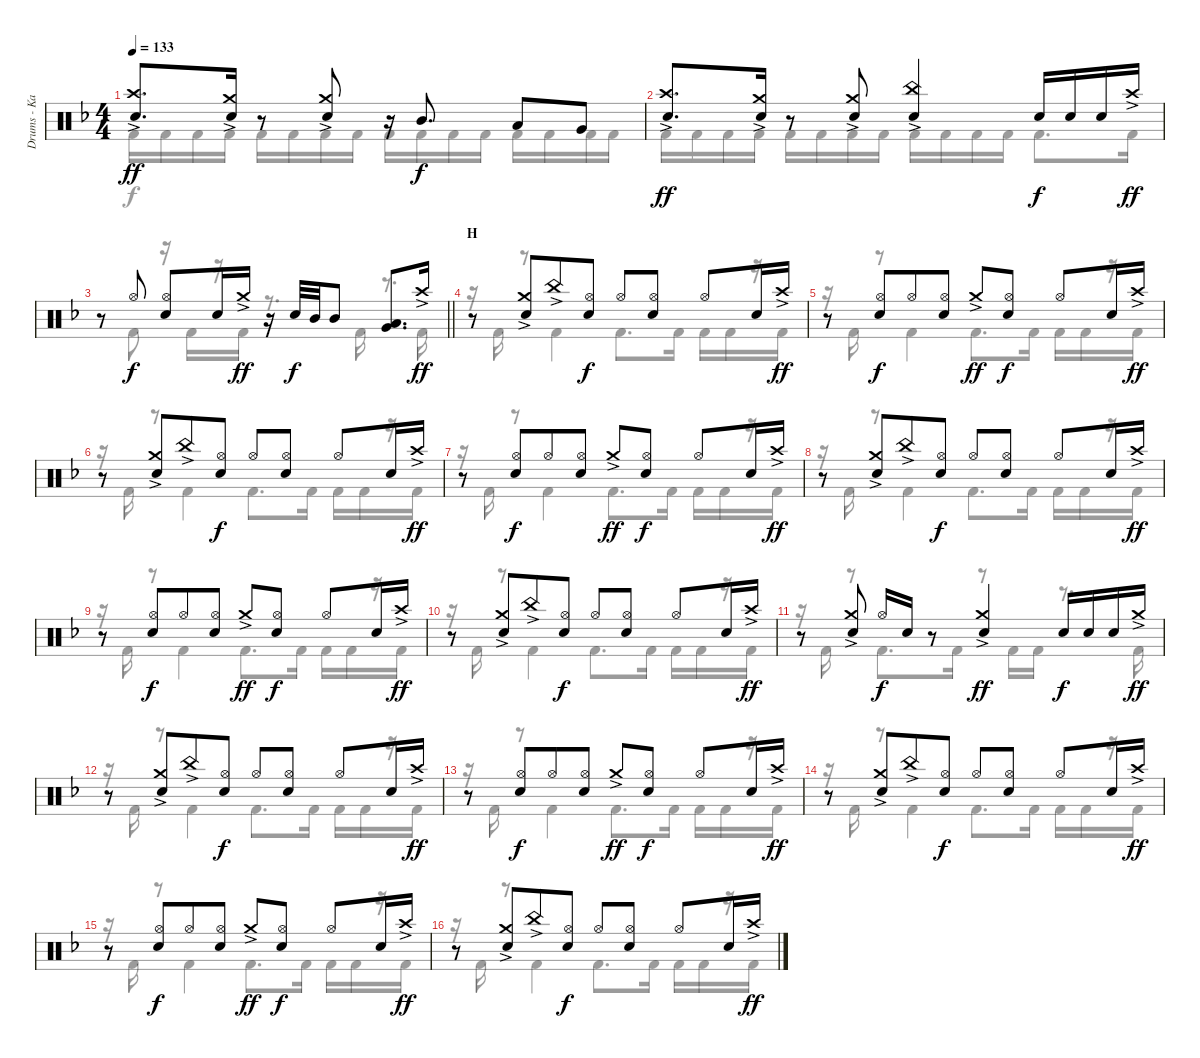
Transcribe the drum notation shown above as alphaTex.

\track ("Drums - Kai" "Drums - Ka") {instrument percussion}
\staff {score}
\articulation defaults
\voice
\ts (4 4)
\tempo 133
\clef neutral
\ks f
("Crash high (hit)"{ac} "Snare (hit) 2").8{d dy ff} ("Crash medium (hit)"{ac} "Snare (hit) 2").16 r.8 ("Crash medium (hit)"{ac} "Snare (hit) 2").8 r.16 "Mid Tom (hit)".8{d dy f} "Low Tom (hit)".8 "Very Low Tom (hit)".8 |
("Crash high (hit)"{ac} "Snare (hit) 2").8{d dy ff} ("Crash medium (hit)"{ac} "Snare (hit) 2").16 r.8 ("Crash medium (hit)"{ac} "Snare (hit) 2").8 ("China (hit)"{ac} "Snare (hit) 2").4 "Snare (hit) 2".16{dy f} "Snare (hit) 2".16 "Snare (hit) 2".16 "Crash high (hit)"{ac}.16{dy ff} |
\barLineRight lightlight
r.8 "Hi-Hat (open)".8{dy f} ("Hi-Hat (open)" "Snare (hit) 2").8 "Snare (hit) 2".16 "Crash medium (hit)"{ac}.16{dy ff} r.16 "Snare (hit) 2".32{dy f} "Mid Tom (hit)".32 "Mid Tom (hit)".8 ("Low Tom (hit)" "Very Low Tom (hit)").8{d} "Crash high (hit)"{ac}.16{dy ff} |
\section ("" "H")
r.8 ("Crash medium (hit)"{ac} "Snare (hit) 2").8{beam merge} "China (hit)"{ac}.8 ("Hi-Hat (open)" "Snare (hit) 2").8{dy f} "Hi-Hat (open)".8 ("Hi-Hat (open)" "Snare (hit) 2").8 "Hi-Hat (open)".8 "Snare (hit) 2".16 "Crash high (hit)"{ac}.16{dy ff} |
r.8 ("Hi-Hat (open)" "Snare (hit) 2").8{dy f beam merge} "Hi-Hat (open)".8 ("Hi-Hat (open)" "Snare (hit) 2").8 "Crash medium (hit)"{ac}.8{dy ff} ("Hi-Hat (open)" "Snare (hit) 2").8{dy f beam split} "Hi-Hat (open)".8 "Snare (hit) 2".16 "Crash high (hit)"{ac}.16{dy ff} |
r.8 ("Crash medium (hit)"{ac} "Snare (hit) 2").8{beam merge} "China (hit)"{ac}.8 ("Hi-Hat (open)" "Snare (hit) 2").8{dy f} "Hi-Hat (open)".8 ("Hi-Hat (open)" "Snare (hit) 2").8 "Hi-Hat (open)".8 "Snare (hit) 2".16 "Crash high (hit)"{ac}.16{dy ff} |
r.8 ("Hi-Hat (open)" "Snare (hit) 2").8{dy f beam merge} "Hi-Hat (open)".8 ("Hi-Hat (open)" "Snare (hit) 2").8 "Crash medium (hit)"{ac}.8{dy ff} ("Hi-Hat (open)" "Snare (hit) 2").8{dy f beam split} "Hi-Hat (open)".8 "Snare (hit) 2".16 "Crash high (hit)"{ac}.16{dy ff} |
r.8 ("Crash medium (hit)"{ac} "Snare (hit) 2").8{beam merge} "China (hit)"{ac}.8 ("Hi-Hat (open)" "Snare (hit) 2").8{dy f} "Hi-Hat (open)".8 ("Hi-Hat (open)" "Snare (hit) 2").8 "Hi-Hat (open)".8 "Snare (hit) 2".16 "Crash high (hit)"{ac}.16{dy ff} |
r.8 ("Hi-Hat (open)" "Snare (hit) 2").8{dy f beam merge} "Hi-Hat (open)".8 ("Hi-Hat (open)" "Snare (hit) 2").8 "Crash medium (hit)"{ac}.8{dy ff} ("Hi-Hat (open)" "Snare (hit) 2").8{dy f beam split} "Hi-Hat (open)".8 "Snare (hit) 2".16 "Crash high (hit)"{ac}.16{dy ff} |
r.8 ("Crash medium (hit)"{ac} "Snare (hit) 2").8{beam merge} "China (hit)"{ac}.8 ("Hi-Hat (open)" "Snare (hit) 2").8{dy f} "Hi-Hat (open)".8 ("Hi-Hat (open)" "Snare (hit) 2").8 "Hi-Hat (open)".8 "Snare (hit) 2".16 "Crash high (hit)"{ac}.16{dy ff} |
r.8 ("Crash medium (hit)"{ac} "Snare (hit) 2").8 "Hi-Hat (open)".16{dy f} "Snare (hit) 2".16 r.8 ("Crash medium (hit)"{ac} "Snare (hit) 2").4{dy ff} "Snare (hit) 2".16{dy f} "Snare (hit) 2".16 "Snare (hit) 2".16 "Crash medium (hit)"{ac}.16{dy ff} |
r.8 ("Crash medium (hit)"{ac} "Snare (hit) 2").8{beam merge} "China (hit)"{ac}.8 ("Hi-Hat (open)" "Snare (hit) 2").8{dy f} "Hi-Hat (open)".8 ("Hi-Hat (open)" "Snare (hit) 2").8 "Hi-Hat (open)".8 "Snare (hit) 2".16 "Crash high (hit)"{ac}.16{dy ff} |
r.8 ("Hi-Hat (open)" "Snare (hit) 2").8{dy f beam merge} "Hi-Hat (open)".8 ("Hi-Hat (open)" "Snare (hit) 2").8 "Crash medium (hit)"{ac}.8{dy ff} ("Hi-Hat (open)" "Snare (hit) 2").8{dy f beam split} "Hi-Hat (open)".8 "Snare (hit) 2".16 "Crash high (hit)"{ac}.16{dy ff} |
r.8 ("Crash medium (hit)"{ac} "Snare (hit) 2").8{beam merge} "China (hit)"{ac}.8 ("Hi-Hat (open)" "Snare (hit) 2").8{dy f} "Hi-Hat (open)".8 ("Hi-Hat (open)" "Snare (hit) 2").8 "Hi-Hat (open)".8 "Snare (hit) 2".16 "Crash high (hit)"{ac}.16{dy ff} |
r.8 ("Hi-Hat (open)" "Snare (hit) 2").8{dy f beam merge} "Hi-Hat (open)".8 ("Hi-Hat (open)" "Snare (hit) 2").8 "Crash medium (hit)"{ac}.8{dy ff} ("Hi-Hat (open)" "Snare (hit) 2").8{dy f beam split} "Hi-Hat (open)".8 "Snare (hit) 2".16 "Crash high (hit)"{ac}.16{dy ff} |
r.8 ("Crash medium (hit)"{ac} "Snare (hit) 2").8{beam merge} "China (hit)"{ac}.8 ("Hi-Hat (open)" "Snare (hit) 2").8{dy f} "Hi-Hat (open)".8 ("Hi-Hat (open)" "Snare (hit) 2").8 "Hi-Hat (open)".8 "Snare (hit) 2".16 "Crash high (hit)"{ac}.16{dy ff}
\voice
\clef neutral
\ottava regular
\simile none
\ks f "Kick (hit) 2".16{dy f} "Kick (hit) 2".16 "Kick (hit) 2".16 "Kick (hit) 2".16 "Kick (hit) 2".16 "Kick (hit) 2".16 "Kick (hit) 2".16 "Kick (hit) 2".16 "Kick (hit) 2".16 "Kick (hit) 2".16 "Kick (hit) 2".16 "Kick (hit) 2".16 "Kick (hit) 2".16 "Kick (hit) 2".16 "Kick (hit) 2".16 "Kick (hit) 2".16
|
"Kick (hit) 2".16 "Kick (hit) 2".16 "Kick (hit) 2".16 "Kick (hit) 2".16 "Kick (hit) 2".16 "Kick (hit) 2".16 "Kick (hit) 2".16 "Kick (hit) 2".16 "Kick (hit) 2".16 "Kick (hit) 2".16 "Kick (hit) 2".16 "Kick (hit) 2".16 "Kick (hit) 2".8{d} "Kick (hit) 2".16 |
\barLineRight lightlight
r.8 "Kick (hit) 2".8 r.16 "Kick (hit) 2".16 r.16 "Kick (hit) 2".16 r.8{d} "Kick (hit) 2".16 r.8{d} "Kick (hit) 2".16 |
r.16 "Kick (hit) 2".16 r.8 "Kick (hit) 2".4 "Kick (hit) 2".8{d} "Kick (hit) 2".16 "Kick (hit) 2".16 "Kick (hit) 2".16 r.16 "Kick (hit) 2".16 |
r.16 "Kick (hit) 2".16 r.8 "Kick (hit) 2".4 "Kick (hit) 2".8{d} "Kick (hit) 2".16 "Kick (hit) 2".16 "Kick (hit) 2".16 r.16 "Kick (hit) 2".16 |
r.16 "Kick (hit) 2".16 r.8 "Kick (hit) 2".4 "Kick (hit) 2".8{d} "Kick (hit) 2".16 "Kick (hit) 2".16 "Kick (hit) 2".16 r.16 "Kick (hit) 2".16 |
r.16 "Kick (hit) 2".16 r.8 "Kick (hit) 2".4 "Kick (hit) 2".8{d} "Kick (hit) 2".16 "Kick (hit) 2".16 "Kick (hit) 2".16 r.16 "Kick (hit) 2".16 |
r.16 "Kick (hit) 2".16 r.8 "Kick (hit) 2".4 "Kick (hit) 2".8{d} "Kick (hit) 2".16 "Kick (hit) 2".16 "Kick (hit) 2".16 r.16 "Kick (hit) 2".16 |
r.16 "Kick (hit) 2".16 r.8 "Kick (hit) 2".4 "Kick (hit) 2".8{d} "Kick (hit) 2".16 "Kick (hit) 2".16 "Kick (hit) 2".16 r.16 "Kick (hit) 2".16 |
r.16 "Kick (hit) 2".16 r.8 "Kick (hit) 2".4 "Kick (hit) 2".8{d} "Kick (hit) 2".16 "Kick (hit) 2".16 "Kick (hit) 2".16 r.16 "Kick (hit) 2".16 |
r.16 "Kick (hit) 2".16 r.8 "Kick (hit) 2".8{d} "Kick (hit) 2".16 r.8 "Kick (hit) 2".16 "Kick (hit) 2".16 r.8{d} "Kick (hit) 2".16 |
r.16 "Kick (hit) 2".16 r.8 "Kick (hit) 2".4 "Kick (hit) 2".8{d} "Kick (hit) 2".16 "Kick (hit) 2".16 "Kick (hit) 2".16 r.16 "Kick (hit) 2".16 |
r.16 "Kick (hit) 2".16 r.8 "Kick (hit) 2".4 "Kick (hit) 2".8{d} "Kick (hit) 2".16 "Kick (hit) 2".16 "Kick (hit) 2".16 r.16 "Kick (hit) 2".16 |
r.16 "Kick (hit) 2".16 r.8 "Kick (hit) 2".4 "Kick (hit) 2".8{d} "Kick (hit) 2".16 "Kick (hit) 2".16 "Kick (hit) 2".16 r.16 "Kick (hit) 2".16 |
r.16 "Kick (hit) 2".16 r.8 "Kick (hit) 2".4 "Kick (hit) 2".8{d} "Kick (hit) 2".16 "Kick (hit) 2".16 "Kick (hit) 2".16 r.16 "Kick (hit) 2".16 |
r.16 "Kick (hit) 2".16 r.8 "Kick (hit) 2".4 "Kick (hit) 2".8{d} "Kick (hit) 2".16 "Kick (hit) 2".16 "Kick (hit) 2".16 r.16 "Kick (hit) 2".16
